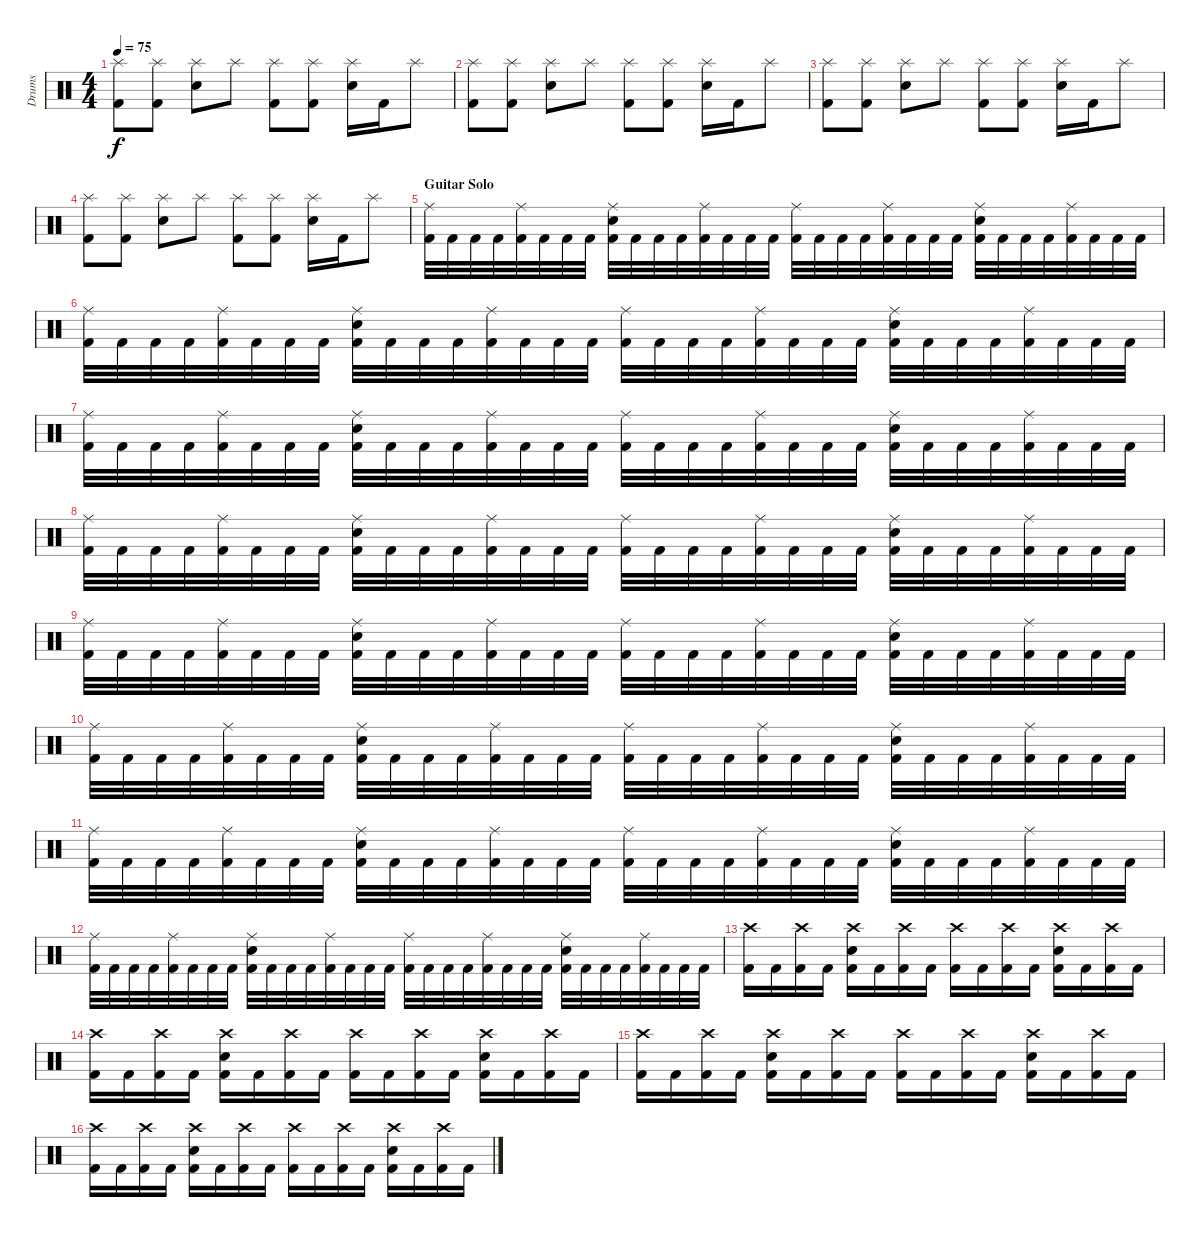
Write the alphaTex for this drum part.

\track ("Drums" "Drums") {instrument percussion}
\staff {score}
\articulation defaults
\ts (4 4)
\tempo 75
\clef neutral
\ks c
("Splash (hit)" "Kick (hit) 2").8{dy f} ("Splash (hit)" "Kick (hit) 2").8 ("Splash (hit)" "Snare (hit) 2").8 "Splash (hit)".8 ("Splash (hit)" "Kick (hit) 2").8 ("Splash (hit)" "Kick (hit) 2").8 ("Splash (hit)" "Snare (hit) 2").16 "Kick (hit) 2".16 "Splash (hit)".8 |
("Splash (hit)" "Kick (hit) 2").8 ("Splash (hit)" "Kick (hit) 2").8 ("Splash (hit)" "Snare (hit) 2").8 "Splash (hit)".8 ("Splash (hit)" "Kick (hit) 2").8 ("Splash (hit)" "Kick (hit) 2").8 ("Splash (hit)" "Snare (hit) 2").16 "Kick (hit) 2".16 "Splash (hit)".8 |
("Splash (hit)" "Kick (hit) 2").8 ("Splash (hit)" "Kick (hit) 2").8 ("Splash (hit)" "Snare (hit) 2").8 "Splash (hit)".8 ("Splash (hit)" "Kick (hit) 2").8 ("Splash (hit)" "Kick (hit) 2").8 ("Splash (hit)" "Snare (hit) 2").16 "Kick (hit) 2".16 "Splash (hit)".8 |
("Splash (hit)" "Kick (hit) 2").8 ("Splash (hit)" "Kick (hit) 2").8 ("Splash (hit)" "Snare (hit) 2").8 "Splash (hit)".8 ("Splash (hit)" "Kick (hit) 2").8 ("Splash (hit)" "Kick (hit) 2").8 ("Splash (hit)" "Snare (hit) 2").16 "Kick (hit) 2".16 "Splash (hit)".8 |
\section ("" "Guitar Solo")
("Ride (middle)" "Kick (hit) 2").32 "Kick (hit) 2".32 "Kick (hit) 2".32 "Kick (hit) 2".32 ("Ride (middle)" "Kick (hit) 2").32 "Kick (hit) 2".32 "Kick (hit) 2".32 "Kick (hit) 2".32 ("Ride (middle)" "Snare (hit) 2" "Kick (hit) 2").32 "Kick (hit) 2".32 "Kick (hit) 2".32 "Kick (hit) 2".32 ("Ride (middle)" "Kick (hit) 2").32 "Kick (hit) 2".32 "Kick (hit) 2".32 "Kick (hit) 2".32 ("Ride (middle)" "Kick (hit) 2").32 "Kick (hit) 2".32 "Kick (hit) 2".32 "Kick (hit) 2".32 ("Ride (middle)" "Kick (hit) 2").32 "Kick (hit) 2".32 "Kick (hit) 2".32 "Kick (hit) 2".32 ("Ride (middle)" "Snare (hit) 2" "Kick (hit) 2").32 "Kick (hit) 2".32 "Kick (hit) 2".32 "Kick (hit) 2".32 ("Ride (middle)" "Kick (hit) 2").32 "Kick (hit) 2".32 "Kick (hit) 2".32 "Kick (hit) 2".32 |
("Ride (middle)" "Kick (hit) 2").32 "Kick (hit) 2".32 "Kick (hit) 2".32 "Kick (hit) 2".32 ("Ride (middle)" "Kick (hit) 2").32 "Kick (hit) 2".32 "Kick (hit) 2".32 "Kick (hit) 2".32 ("Ride (middle)" "Snare (hit) 2" "Kick (hit) 2").32 "Kick (hit) 2".32 "Kick (hit) 2".32 "Kick (hit) 2".32 ("Ride (middle)" "Kick (hit) 2").32 "Kick (hit) 2".32 "Kick (hit) 2".32 "Kick (hit) 2".32 ("Ride (middle)" "Kick (hit) 2").32 "Kick (hit) 2".32 "Kick (hit) 2".32 "Kick (hit) 2".32 ("Ride (middle)" "Kick (hit) 2").32 "Kick (hit) 2".32 "Kick (hit) 2".32 "Kick (hit) 2".32 ("Ride (middle)" "Snare (hit) 2" "Kick (hit) 2").32 "Kick (hit) 2".32 "Kick (hit) 2".32 "Kick (hit) 2".32 ("Ride (middle)" "Kick (hit) 2").32 "Kick (hit) 2".32 "Kick (hit) 2".32 "Kick (hit) 2".32 |
("Ride (middle)" "Kick (hit) 2").32 "Kick (hit) 2".32 "Kick (hit) 2".32 "Kick (hit) 2".32 ("Ride (middle)" "Kick (hit) 2").32 "Kick (hit) 2".32 "Kick (hit) 2".32 "Kick (hit) 2".32 ("Ride (middle)" "Snare (hit) 2" "Kick (hit) 2").32 "Kick (hit) 2".32 "Kick (hit) 2".32 "Kick (hit) 2".32 ("Ride (middle)" "Kick (hit) 2").32 "Kick (hit) 2".32 "Kick (hit) 2".32 "Kick (hit) 2".32 ("Ride (middle)" "Kick (hit) 2").32 "Kick (hit) 2".32 "Kick (hit) 2".32 "Kick (hit) 2".32 ("Ride (middle)" "Kick (hit) 2").32 "Kick (hit) 2".32 "Kick (hit) 2".32 "Kick (hit) 2".32 ("Ride (middle)" "Snare (hit) 2" "Kick (hit) 2").32 "Kick (hit) 2".32 "Kick (hit) 2".32 "Kick (hit) 2".32 ("Ride (middle)" "Kick (hit) 2").32 "Kick (hit) 2".32 "Kick (hit) 2".32 "Kick (hit) 2".32 |
("Ride (middle)" "Kick (hit) 2").32 "Kick (hit) 2".32 "Kick (hit) 2".32 "Kick (hit) 2".32 ("Ride (middle)" "Kick (hit) 2").32 "Kick (hit) 2".32 "Kick (hit) 2".32 "Kick (hit) 2".32 ("Ride (middle)" "Snare (hit) 2" "Kick (hit) 2").32 "Kick (hit) 2".32 "Kick (hit) 2".32 "Kick (hit) 2".32 ("Ride (middle)" "Kick (hit) 2").32 "Kick (hit) 2".32 "Kick (hit) 2".32 "Kick (hit) 2".32 ("Ride (middle)" "Kick (hit) 2").32 "Kick (hit) 2".32 "Kick (hit) 2".32 "Kick (hit) 2".32 ("Ride (middle)" "Kick (hit) 2").32 "Kick (hit) 2".32 "Kick (hit) 2".32 "Kick (hit) 2".32 ("Ride (middle)" "Snare (hit) 2" "Kick (hit) 2").32 "Kick (hit) 2".32 "Kick (hit) 2".32 "Kick (hit) 2".32 ("Ride (middle)" "Kick (hit) 2").32 "Kick (hit) 2".32 "Kick (hit) 2".32 "Kick (hit) 2".32 |
("Ride (middle)" "Kick (hit) 2").32 "Kick (hit) 2".32 "Kick (hit) 2".32 "Kick (hit) 2".32 ("Ride (middle)" "Kick (hit) 2").32 "Kick (hit) 2".32 "Kick (hit) 2".32 "Kick (hit) 2".32 ("Ride (middle)" "Snare (hit) 2" "Kick (hit) 2").32 "Kick (hit) 2".32 "Kick (hit) 2".32 "Kick (hit) 2".32 ("Ride (middle)" "Kick (hit) 2").32 "Kick (hit) 2".32 "Kick (hit) 2".32 "Kick (hit) 2".32 ("Ride (middle)" "Kick (hit) 2").32 "Kick (hit) 2".32 "Kick (hit) 2".32 "Kick (hit) 2".32 ("Ride (middle)" "Kick (hit) 2").32 "Kick (hit) 2".32 "Kick (hit) 2".32 "Kick (hit) 2".32 ("Ride (middle)" "Snare (hit) 2" "Kick (hit) 2").32 "Kick (hit) 2".32 "Kick (hit) 2".32 "Kick (hit) 2".32 ("Ride (middle)" "Kick (hit) 2").32 "Kick (hit) 2".32 "Kick (hit) 2".32 "Kick (hit) 2".32 |
("Ride (middle)" "Kick (hit) 2").32 "Kick (hit) 2".32 "Kick (hit) 2".32 "Kick (hit) 2".32 ("Ride (middle)" "Kick (hit) 2").32 "Kick (hit) 2".32 "Kick (hit) 2".32 "Kick (hit) 2".32 ("Ride (middle)" "Snare (hit) 2" "Kick (hit) 2").32 "Kick (hit) 2".32 "Kick (hit) 2".32 "Kick (hit) 2".32 ("Ride (middle)" "Kick (hit) 2").32 "Kick (hit) 2".32 "Kick (hit) 2".32 "Kick (hit) 2".32 ("Ride (middle)" "Kick (hit) 2").32 "Kick (hit) 2".32 "Kick (hit) 2".32 "Kick (hit) 2".32 ("Ride (middle)" "Kick (hit) 2").32 "Kick (hit) 2".32 "Kick (hit) 2".32 "Kick (hit) 2".32 ("Ride (middle)" "Snare (hit) 2" "Kick (hit) 2").32 "Kick (hit) 2".32 "Kick (hit) 2".32 "Kick (hit) 2".32 ("Ride (middle)" "Kick (hit) 2").32 "Kick (hit) 2".32 "Kick (hit) 2".32 "Kick (hit) 2".32 |
("Ride (middle)" "Kick (hit) 2").32 "Kick (hit) 2".32 "Kick (hit) 2".32 "Kick (hit) 2".32 ("Ride (middle)" "Kick (hit) 2").32 "Kick (hit) 2".32 "Kick (hit) 2".32 "Kick (hit) 2".32 ("Ride (middle)" "Snare (hit) 2" "Kick (hit) 2").32 "Kick (hit) 2".32 "Kick (hit) 2".32 "Kick (hit) 2".32 ("Ride (middle)" "Kick (hit) 2").32 "Kick (hit) 2".32 "Kick (hit) 2".32 "Kick (hit) 2".32 ("Ride (middle)" "Kick (hit) 2").32 "Kick (hit) 2".32 "Kick (hit) 2".32 "Kick (hit) 2".32 ("Ride (middle)" "Kick (hit) 2").32 "Kick (hit) 2".32 "Kick (hit) 2".32 "Kick (hit) 2".32 ("Ride (middle)" "Snare (hit) 2" "Kick (hit) 2").32 "Kick (hit) 2".32 "Kick (hit) 2".32 "Kick (hit) 2".32 ("Ride (middle)" "Kick (hit) 2").32 "Kick (hit) 2".32 "Kick (hit) 2".32 "Kick (hit) 2".32 |
("Ride (middle)" "Kick (hit) 2").32 "Kick (hit) 2".32 "Kick (hit) 2".32 "Kick (hit) 2".32 ("Ride (middle)" "Kick (hit) 2").32 "Kick (hit) 2".32 "Kick (hit) 2".32 "Kick (hit) 2".32 ("Ride (middle)" "Snare (hit) 2" "Kick (hit) 2").32 "Kick (hit) 2".32 "Kick (hit) 2".32 "Kick (hit) 2".32 ("Ride (middle)" "Kick (hit) 2").32 "Kick (hit) 2".32 "Kick (hit) 2".32 "Kick (hit) 2".32 ("Ride (middle)" "Kick (hit) 2").32 "Kick (hit) 2".32 "Kick (hit) 2".32 "Kick (hit) 2".32 ("Ride (middle)" "Kick (hit) 2").32 "Kick (hit) 2".32 "Kick (hit) 2".32 "Kick (hit) 2".32 ("Ride (middle)" "Snare (hit) 2" "Kick (hit) 2").32 "Kick (hit) 2".32 "Kick (hit) 2".32 "Kick (hit) 2".32 ("Ride (middle)" "Kick (hit) 2").32 "Kick (hit) 2".32 "Kick (hit) 2".32 "Kick (hit) 2".32 |
("Crash high (hit)" "Kick (hit) 2").16 "Kick (hit) 2".16 ("Crash high (hit)" "Kick (hit) 2").16 "Kick (hit) 2".16 ("Crash high (hit)" "Snare (hit) 2" "Kick (hit) 2").16 "Kick (hit) 2".16 ("Crash high (hit)" "Kick (hit) 2").16 "Kick (hit) 2".16 ("Crash high (hit)" "Kick (hit) 2").16 "Kick (hit) 2".16 ("Crash high (hit)" "Kick (hit) 2").16 "Kick (hit) 2".16 ("Crash high (hit)" "Snare (hit) 2" "Kick (hit) 2").16 "Kick (hit) 2".16 ("Crash high (hit)" "Kick (hit) 2").16 "Kick (hit) 2".16 |
("Crash high (hit)" "Kick (hit) 2").16 "Kick (hit) 2".16 ("Crash high (hit)" "Kick (hit) 2").16 "Kick (hit) 2".16 ("Crash high (hit)" "Snare (hit) 2" "Kick (hit) 2").16 "Kick (hit) 2".16 ("Crash high (hit)" "Kick (hit) 2").16 "Kick (hit) 2".16 ("Crash high (hit)" "Kick (hit) 2").16 "Kick (hit) 2".16 ("Crash high (hit)" "Kick (hit) 2").16 "Kick (hit) 2".16 ("Crash high (hit)" "Snare (hit) 2" "Kick (hit) 2").16 "Kick (hit) 2".16 ("Crash high (hit)" "Kick (hit) 2").16 "Kick (hit) 2".16 |
("Crash high (hit)" "Kick (hit) 2").16 "Kick (hit) 2".16 ("Crash high (hit)" "Kick (hit) 2").16 "Kick (hit) 2".16 ("Crash high (hit)" "Snare (hit) 2" "Kick (hit) 2").16 "Kick (hit) 2".16 ("Crash high (hit)" "Kick (hit) 2").16 "Kick (hit) 2".16 ("Crash high (hit)" "Kick (hit) 2").16 "Kick (hit) 2".16 ("Crash high (hit)" "Kick (hit) 2").16 "Kick (hit) 2".16 ("Crash high (hit)" "Snare (hit) 2" "Kick (hit) 2").16 "Kick (hit) 2".16 ("Crash high (hit)" "Kick (hit) 2").16 "Kick (hit) 2".16 |
("Crash high (hit)" "Kick (hit) 2").16 "Kick (hit) 2".16 ("Crash high (hit)" "Kick (hit) 2").16 "Kick (hit) 2".16 ("Crash high (hit)" "Snare (hit) 2" "Kick (hit) 2").16 "Kick (hit) 2".16 ("Crash high (hit)" "Kick (hit) 2").16 "Kick (hit) 2".16 ("Crash high (hit)" "Kick (hit) 2").16 "Kick (hit) 2".16 ("Crash high (hit)" "Kick (hit) 2").16 "Kick (hit) 2".16 ("Crash high (hit)" "Snare (hit) 2" "Kick (hit) 2").16 "Kick (hit) 2".16 ("Crash high (hit)" "Kick (hit) 2").16 "Kick (hit) 2".16
